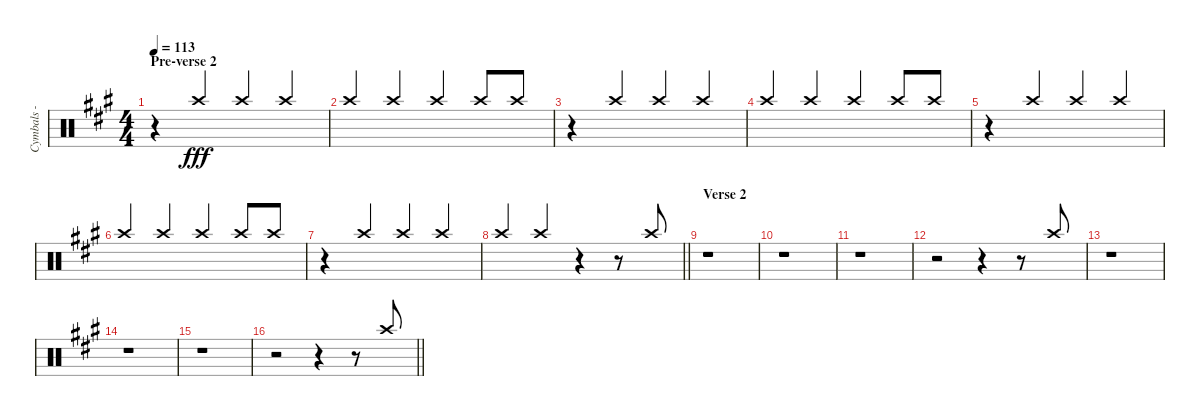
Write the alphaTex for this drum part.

\track ("Cymbals - crash" "Cymbals - ") {instrument percussion}
\staff {score}
\articulation defaults
\ts (4 4)
\section ("" "Pre-verse 2")
\tempo 113
\clef neutral
\ks f#minor
r.4{dy fff} "Crash high (hit)".4{beam Up} "Crash high (hit)".4{beam Up} "Crash high (hit)".4{beam Up} |
"Crash high (hit)".4{beam Up} "Crash high (hit)".4{beam Up} "Crash high (hit)".4{beam Up} "Crash high (hit)".8{beam Up} "Crash high (hit)".8{beam Up} |
r.4 "Crash high (hit)".4{beam Up} "Crash high (hit)".4{beam Up} "Crash high (hit)".4{beam Up} |
"Crash high (hit)".4{beam Up} "Crash high (hit)".4{beam Up} "Crash high (hit)".4{beam Up} "Crash high (hit)".8{beam Up} "Crash high (hit)".8{beam Up} |
r.4 "Crash high (hit)".4{beam Up} "Crash high (hit)".4{beam Up} "Crash high (hit)".4{beam Up} |
"Crash high (hit)".4{beam Up} "Crash high (hit)".4{beam Up} "Crash high (hit)".4{beam Up} "Crash high (hit)".8{beam Up} "Crash high (hit)".8{beam Up} |
r.4 "Crash high (hit)".4{beam Up} "Crash high (hit)".4{beam Up} "Crash high (hit)".4{beam Up} |
\barLineRight lightlight "Crash high (hit)".4{beam Up} "Crash high (hit)".4{beam Up}
r.4{beam Up} r.8 "Crash high (hit)".8{beam Up} |
\section ("" "Verse 2")
r.1 |
r.1 |
r.1 |
r.2 r.4 r.8 "Crash high (hit)".8{beam Up} |
r.1 |
r.1 |
r.1 |
\barLineRight lightlight
r.2 r.4 r.8 "Crash high (hit)".8{beam Up}
